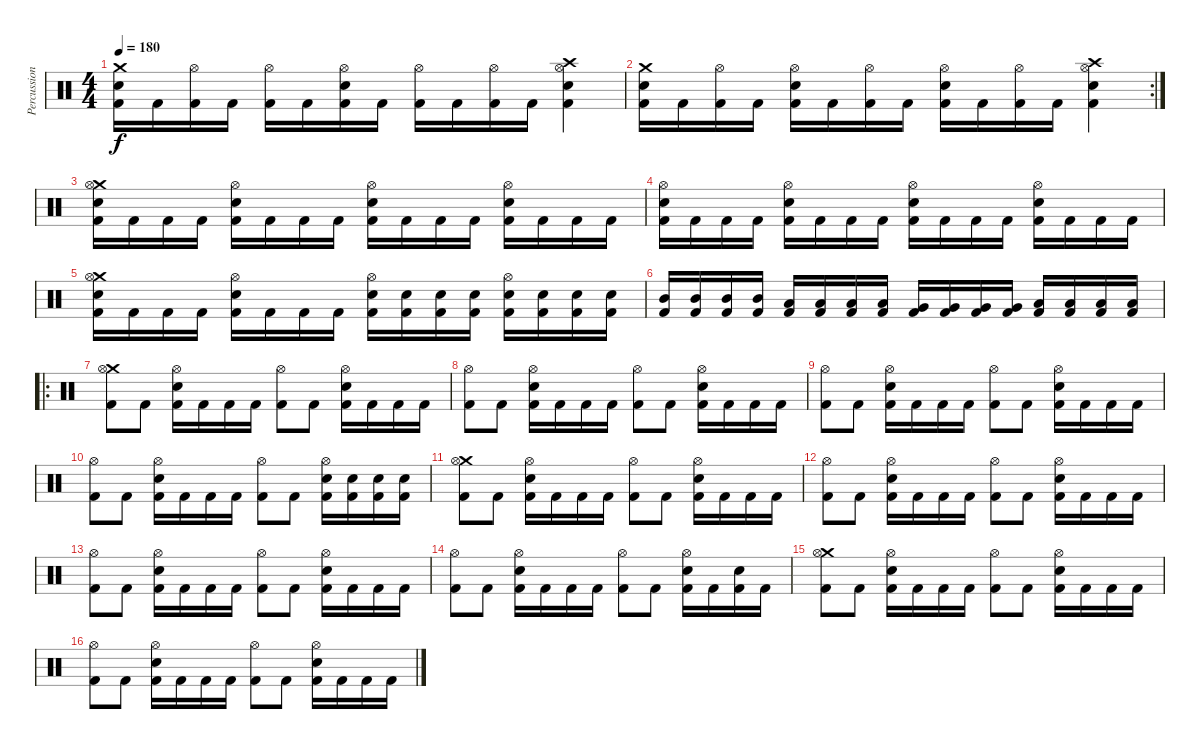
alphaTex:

\track ("Percussion" "Percussion") {instrument percussion}
\staff {score}
\articulation defaults
\ts (4 4)
\tempo 180
\clef neutral
\ks c
("Crash medium (hit)" "Electric Snare (hit)" "Kick (hit) 2").16{dy f} "Kick (hit) 2".16 ("Hi-Hat (open)" "Kick (hit) 2").16 "Kick (hit) 2".16 ("Hi-Hat (open)" "Kick (hit) 2").16 "Kick (hit) 2".16 ("Hi-Hat (open)" "Electric Snare (hit)" "Kick (hit) 2").16 "Kick (hit) 2".16 ("Hi-Hat (open)" "Kick (hit) 2").16 "Kick (hit) 2".16 ("Hi-Hat (open)" "Kick (hit) 2").16 "Kick (hit) 2".16 ("Crash high (hit)" "Hi-Hat (open)" "Electric Snare (hit)" "Kick (hit) 2").4 |
\rc 2
("Crash medium (hit)" "Electric Snare (hit)" "Kick (hit) 2").16 "Kick (hit) 2".16 ("Hi-Hat (open)" "Kick (hit) 2").16 "Kick (hit) 2".16 ("Hi-Hat (open)" "Electric Snare (hit)" "Kick (hit) 2").16 "Kick (hit) 2".16 ("Hi-Hat (open)" "Kick (hit) 2").16 "Kick (hit) 2".16 ("Hi-Hat (open)" "Electric Snare (hit)" "Kick (hit) 2").16 "Kick (hit) 2".16 ("Hi-Hat (open)" "Kick (hit) 2").16 "Kick (hit) 2".16 ("Crash high (hit)" "Hi-Hat (open)" "Electric Snare (hit)" "Kick (hit) 2").4 |
("Crash medium (hit)" "Hi-Hat (open)" "Electric Snare (hit)" "Kick (hit) 2").16 "Kick (hit) 2".16 "Kick (hit) 2".16 "Kick (hit) 2".16 ("Hi-Hat (open)" "Electric Snare (hit)" "Kick (hit) 2").16 "Kick (hit) 2".16 "Kick (hit) 2".16 "Kick (hit) 2".16 ("Hi-Hat (open)" "Electric Snare (hit)" "Kick (hit) 2").16 "Kick (hit) 2".16 "Kick (hit) 2".16 "Kick (hit) 2".16 ("Hi-Hat (open)" "Electric Snare (hit)" "Kick (hit) 2").16 "Kick (hit) 2".16 "Kick (hit) 2".16 "Kick (hit) 2".16 |
("Hi-Hat (open)" "Electric Snare (hit)" "Kick (hit) 2").16 "Kick (hit) 2".16 "Kick (hit) 2".16 "Kick (hit) 2".16 ("Hi-Hat (open)" "Electric Snare (hit)" "Kick (hit) 2").16 "Kick (hit) 2".16 "Kick (hit) 2".16 "Kick (hit) 2".16 ("Hi-Hat (open)" "Electric Snare (hit)" "Kick (hit) 2").16 "Kick (hit) 2".16 "Kick (hit) 2".16 "Kick (hit) 2".16 ("Hi-Hat (open)" "Electric Snare (hit)" "Kick (hit) 2").16 "Kick (hit) 2".16 "Kick (hit) 2".16 "Kick (hit) 2".16 |
("Crash medium (hit)" "Hi-Hat (open)" "Electric Snare (hit)" "Kick (hit) 2").16 "Kick (hit) 2".16 "Kick (hit) 2".16 "Kick (hit) 2".16 ("Hi-Hat (open)" "Electric Snare (hit)" "Kick (hit) 2").16 "Kick (hit) 2".16 "Kick (hit) 2".16 "Kick (hit) 2".16 ("Hi-Hat (open)" "Electric Snare (hit)" "Kick (hit) 2").16 ("Electric Snare (hit)" "Kick (hit) 2").16 ("Electric Snare (hit)" "Kick (hit) 2").16 ("Electric Snare (hit)" "Kick (hit) 2").16 ("Hi-Hat (open)" "Electric Snare (hit)" "Kick (hit) 2").16 ("Electric Snare (hit)" "Kick (hit) 2").16 ("Electric Snare (hit)" "Kick (hit) 2").16 ("Electric Snare (hit)" "Kick (hit) 2").16 |
("Mid Tom (hit)" "Kick (hit) 2").16 ("Mid Tom (hit)" "Kick (hit) 2").16 ("Mid Tom (hit)" "Kick (hit) 2").16 ("Mid Tom (hit)" "Kick (hit) 2").16 ("Low Tom (hit)" "Kick (hit) 2").16 ("Low Tom (hit)" "Kick (hit) 2").16 ("Low Tom (hit)" "Kick (hit) 2").16 ("Low Tom (hit)" "Kick (hit) 2").16 ("Very Low Tom (hit)" "Kick (hit) 2").16 ("Very Low Tom (hit)" "Kick (hit) 2").16 ("Very Low Tom (hit)" "Kick (hit) 2").16 ("Very Low Tom (hit)" "Kick (hit) 2").16 ("Low Floor Tom (hit)" "Kick (hit) 2").16 ("Low Floor Tom (hit)" "Kick (hit) 2").16 ("Low Floor Tom (hit)" "Kick (hit) 2").16 ("Low Floor Tom (hit)" "Kick (hit) 2").16 |
\ro
("Crash medium (hit)" "Hi-Hat (open)" "Kick (hit) 2").8 "Kick (hit) 2".8 ("Hi-Hat (open)" "Electric Snare (hit)" "Kick (hit) 2").16 "Kick (hit) 2".16 "Kick (hit) 2".16 "Kick (hit) 2".16 ("Hi-Hat (open)" "Kick (hit) 2").8 "Kick (hit) 2".8 ("Hi-Hat (open)" "Electric Snare (hit)" "Kick (hit) 2").16 "Kick (hit) 2".16 "Kick (hit) 2".16 "Kick (hit) 2".16 |
("Hi-Hat (open)" "Kick (hit) 2").8 "Kick (hit) 2".8 ("Hi-Hat (open)" "Electric Snare (hit)" "Kick (hit) 2").16 "Kick (hit) 2".16 "Kick (hit) 2".16 "Kick (hit) 2".16 ("Hi-Hat (open)" "Kick (hit) 2").8 "Kick (hit) 2".8 ("Hi-Hat (open)" "Electric Snare (hit)" "Kick (hit) 2").16 "Kick (hit) 2".16 "Kick (hit) 2".16 "Kick (hit) 2".16 |
("Hi-Hat (open)" "Kick (hit) 2").8 "Kick (hit) 2".8 ("Hi-Hat (open)" "Electric Snare (hit)" "Kick (hit) 2").16 "Kick (hit) 2".16 "Kick (hit) 2".16 "Kick (hit) 2".16 ("Hi-Hat (open)" "Kick (hit) 2").8 "Kick (hit) 2".8 ("Hi-Hat (open)" "Electric Snare (hit)" "Kick (hit) 2").16 "Kick (hit) 2".16 "Kick (hit) 2".16 "Kick (hit) 2".16 |
("Hi-Hat (open)" "Kick (hit) 2").8 "Kick (hit) 2".8 ("Hi-Hat (open)" "Electric Snare (hit)" "Kick (hit) 2").16 "Kick (hit) 2".16 "Kick (hit) 2".16 "Kick (hit) 2".16 ("Hi-Hat (open)" "Kick (hit) 2").8 "Kick (hit) 2".8 ("Hi-Hat (open)" "Electric Snare (hit)" "Kick (hit) 2").16 ("Electric Snare (hit)" "Kick (hit) 2").16 ("Electric Snare (hit)" "Kick (hit) 2").16 ("Electric Snare (hit)" "Kick (hit) 2").16 |
("Crash medium (hit)" "Hi-Hat (open)" "Kick (hit) 2").8 "Kick (hit) 2".8 ("Hi-Hat (open)" "Electric Snare (hit)" "Kick (hit) 2").16 "Kick (hit) 2".16 "Kick (hit) 2".16 "Kick (hit) 2".16 ("Hi-Hat (open)" "Kick (hit) 2").8 "Kick (hit) 2".8 ("Hi-Hat (open)" "Electric Snare (hit)" "Kick (hit) 2").16 "Kick (hit) 2".16 "Kick (hit) 2".16 "Kick (hit) 2".16 |
("Hi-Hat (open)" "Kick (hit) 2").8 "Kick (hit) 2".8 ("Hi-Hat (open)" "Electric Snare (hit)" "Kick (hit) 2").16 "Kick (hit) 2".16 "Kick (hit) 2".16 "Kick (hit) 2".16 ("Hi-Hat (open)" "Kick (hit) 2").8 "Kick (hit) 2".8 ("Hi-Hat (open)" "Electric Snare (hit)" "Kick (hit) 2").16 "Kick (hit) 2".16 "Kick (hit) 2".16 "Kick (hit) 2".16 |
("Hi-Hat (open)" "Kick (hit) 2").8 "Kick (hit) 2".8 ("Hi-Hat (open)" "Electric Snare (hit)" "Kick (hit) 2").16 "Kick (hit) 2".16 "Kick (hit) 2".16 "Kick (hit) 2".16 ("Hi-Hat (open)" "Kick (hit) 2").8 "Kick (hit) 2".8 ("Hi-Hat (open)" "Electric Snare (hit)" "Kick (hit) 2").16 "Kick (hit) 2".16 "Kick (hit) 2".16 "Kick (hit) 2".16 |
("Hi-Hat (open)" "Kick (hit) 2").8 "Kick (hit) 2".8 ("Hi-Hat (open)" "Electric Snare (hit)" "Kick (hit) 2").16 "Kick (hit) 2".16 "Kick (hit) 2".16 "Kick (hit) 2".16 ("Hi-Hat (open)" "Kick (hit) 2").8 "Kick (hit) 2".8 ("Hi-Hat (open)" "Electric Snare (hit)" "Kick (hit) 2").16 "Kick (hit) 2".16 ("Electric Snare (hit)" "Kick (hit) 2").16 "Kick (hit) 2".16 |
("Crash medium (hit)" "Hi-Hat (open)" "Kick (hit) 2").8 "Kick (hit) 2".8 ("Hi-Hat (open)" "Electric Snare (hit)" "Kick (hit) 2").16 "Kick (hit) 2".16 "Kick (hit) 2".16 "Kick (hit) 2".16 ("Hi-Hat (open)" "Kick (hit) 2").8 "Kick (hit) 2".8 ("Hi-Hat (open)" "Electric Snare (hit)" "Kick (hit) 2").16 "Kick (hit) 2".16 "Kick (hit) 2".16 "Kick (hit) 2".16 |
("Hi-Hat (open)" "Kick (hit) 2").8 "Kick (hit) 2".8 ("Hi-Hat (open)" "Electric Snare (hit)" "Kick (hit) 2").16 "Kick (hit) 2".16 "Kick (hit) 2".16 "Kick (hit) 2".16 ("Hi-Hat (open)" "Kick (hit) 2").8 "Kick (hit) 2".8 ("Hi-Hat (open)" "Electric Snare (hit)" "Kick (hit) 2").16 "Kick (hit) 2".16 "Kick (hit) 2".16 "Kick (hit) 2".16
